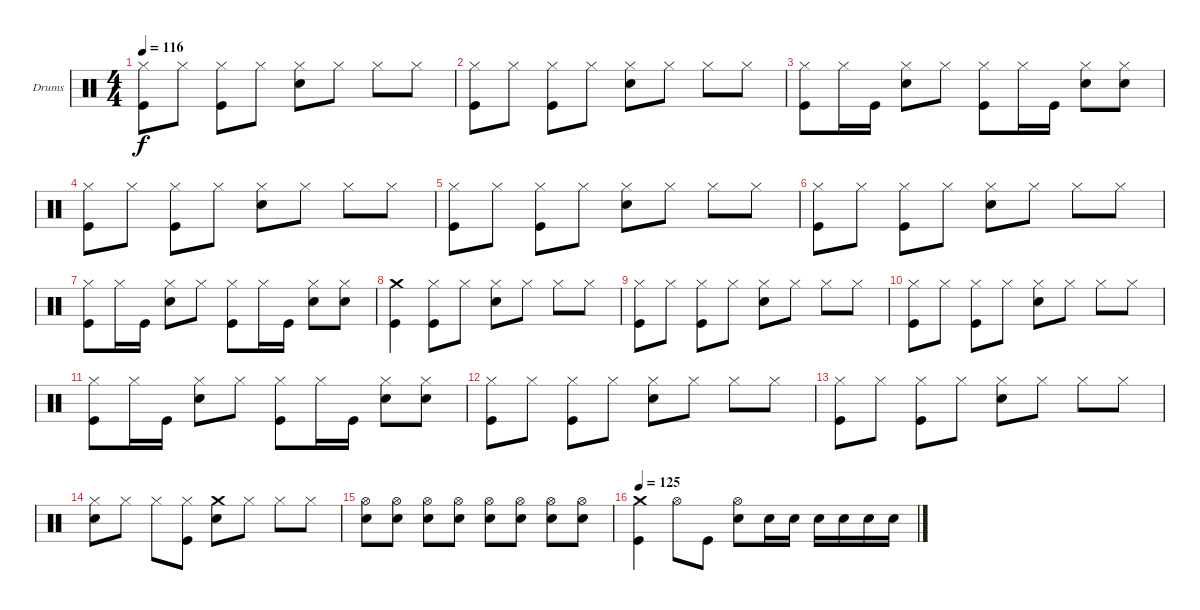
\bracketExtendMode groupsimilarinstruments
\firstSystemTrackNameOrientation horizontal
\otherSystemsTrackNameOrientation horizontal
\track ("Drumkit" "Drums") {instrument percussion}
\staff {score}
\articulation defaults
\ts (4 4)
\tempo 116
\clef neutral
\ks c
("Kick (hit)" "Hi-Hat (closed)").8{dy f} "Hi-Hat (closed)".8 ("Kick (hit)" "Hi-Hat (closed)").8 "Hi-Hat (closed)".8 ("Snare (hit) 2" "Hi-Hat (closed)").8 "Hi-Hat (closed)".8 "Hi-Hat (closed)".8 "Hi-Hat (closed)".8 |
("Kick (hit)" "Hi-Hat (closed)").8 "Hi-Hat (closed)".8 ("Kick (hit)" "Hi-Hat (closed)").8 "Hi-Hat (closed)".8 ("Snare (hit) 2" "Hi-Hat (closed)").8 "Hi-Hat (closed)".8 "Hi-Hat (closed)".8 "Hi-Hat (closed)".8 |
("Kick (hit)" "Hi-Hat (closed)").8 "Hi-Hat (closed)".16 "Kick (hit)".16 ("Snare (hit) 2" "Hi-Hat (closed)").8 "Hi-Hat (closed)".8 ("Kick (hit)" "Hi-Hat (closed)").8 "Hi-Hat (closed)".16 "Kick (hit)".16 ("Snare (hit) 2" "Hi-Hat (closed)").8 ("Snare (hit) 2" "Hi-Hat (closed)").8 |
("Kick (hit)" "Hi-Hat (closed)").8 "Hi-Hat (closed)".8 ("Kick (hit)" "Hi-Hat (closed)").8 "Hi-Hat (closed)".8 ("Snare (hit) 2" "Hi-Hat (closed)").8 "Hi-Hat (closed)".8 "Hi-Hat (closed)".8 "Hi-Hat (closed)".8 |
("Kick (hit)" "Hi-Hat (closed)").8 "Hi-Hat (closed)".8 ("Kick (hit)" "Hi-Hat (closed)").8 "Hi-Hat (closed)".8 ("Snare (hit) 2" "Hi-Hat (closed)").8 "Hi-Hat (closed)".8 "Hi-Hat (closed)".8 "Hi-Hat (closed)".8 |
("Kick (hit)" "Hi-Hat (closed)").8 "Hi-Hat (closed)".8 ("Kick (hit)" "Hi-Hat (closed)").8 "Hi-Hat (closed)".8 ("Snare (hit) 2" "Hi-Hat (closed)").8 "Hi-Hat (closed)".8 "Hi-Hat (closed)".8 "Hi-Hat (closed)".8 |
("Kick (hit)" "Hi-Hat (closed)").8 "Hi-Hat (closed)".16 "Kick (hit)".16 ("Snare (hit) 2" "Hi-Hat (closed)").8 "Hi-Hat (closed)".8 ("Kick (hit)" "Hi-Hat (closed)").8 "Hi-Hat (closed)".16 "Kick (hit)".16 ("Snare (hit) 2" "Hi-Hat (closed)").8 ("Snare (hit) 2" "Hi-Hat (closed)").8 |
("Kick (hit)" "Crash medium (hit)").4 ("Kick (hit)" "Hi-Hat (closed)").8 "Hi-Hat (closed)".8 ("Snare (hit) 2" "Hi-Hat (closed)").8 "Hi-Hat (closed)".8 "Hi-Hat (closed)".8 "Hi-Hat (closed)".8 |
("Kick (hit)" "Hi-Hat (closed)").8 "Hi-Hat (closed)".8 ("Kick (hit)" "Hi-Hat (closed)").8 "Hi-Hat (closed)".8 ("Snare (hit) 2" "Hi-Hat (closed)").8 "Hi-Hat (closed)".8 "Hi-Hat (closed)".8 "Hi-Hat (closed)".8 |
("Kick (hit)" "Hi-Hat (closed)").8 "Hi-Hat (closed)".8 ("Kick (hit)" "Hi-Hat (closed)").8 "Hi-Hat (closed)".8 ("Snare (hit) 2" "Hi-Hat (closed)").8 "Hi-Hat (closed)".8 "Hi-Hat (closed)".8 "Hi-Hat (closed)".8 |
("Kick (hit)" "Hi-Hat (closed)").8 "Hi-Hat (closed)".16 "Kick (hit)".16 ("Snare (hit) 2" "Hi-Hat (closed)").8 "Hi-Hat (closed)".8 ("Kick (hit)" "Hi-Hat (closed)").8 "Hi-Hat (closed)".16 "Kick (hit)".16 ("Snare (hit) 2" "Hi-Hat (closed)").8 ("Snare (hit) 2" "Hi-Hat (closed)").8 |
("Kick (hit)" "Hi-Hat (closed)").8 "Hi-Hat (closed)".8 ("Kick (hit)" "Hi-Hat (closed)").8 "Hi-Hat (closed)".8 ("Snare (hit) 2" "Hi-Hat (closed)").8 "Hi-Hat (closed)".8 "Hi-Hat (closed)".8 "Hi-Hat (closed)".8 |
("Kick (hit)" "Hi-Hat (closed)").8 "Hi-Hat (closed)".8 ("Kick (hit)" "Hi-Hat (closed)").8 "Hi-Hat (closed)".8 ("Snare (hit) 2" "Hi-Hat (closed)").8 "Hi-Hat (closed)".8 "Hi-Hat (closed)".8 "Hi-Hat (closed)".8 |
("Snare (hit) 2" "Hi-Hat (closed)").8 "Hi-Hat (closed)".8 "Hi-Hat (closed)".8 ("Kick (hit)" "Hi-Hat (closed)").8 ("Snare (hit) 2" "Crash medium (hit)").8 "Hi-Hat (closed)".8 "Hi-Hat (closed)".8 "Hi-Hat (closed)".8 |
("Snare (hit) 2" "Hi-Hat (open)").8 ("Snare (hit) 2" "Hi-Hat (open)").8 ("Snare (hit) 2" "Hi-Hat (open)").8 ("Snare (hit) 2" "Hi-Hat (open)").8 ("Snare (hit) 2" "Hi-Hat (open)").8 ("Snare (hit) 2" "Hi-Hat (open)").8 ("Snare (hit) 2" "Hi-Hat (open)").8 ("Snare (hit) 2" "Hi-Hat (open)").8 |
\tempo 125
("Kick (hit)" "Crash medium (hit)").4 "Hi-Hat (open)".8 "Kick (hit)".8 ("Snare (hit) 2" "Hi-Hat (open)").8 "Snare (hit) 2".16 "Snare (hit) 2".16 "Snare (hit) 2".16 "Snare (hit) 2".16 "Snare (hit) 2".16 "Snare (hit) 2".16
